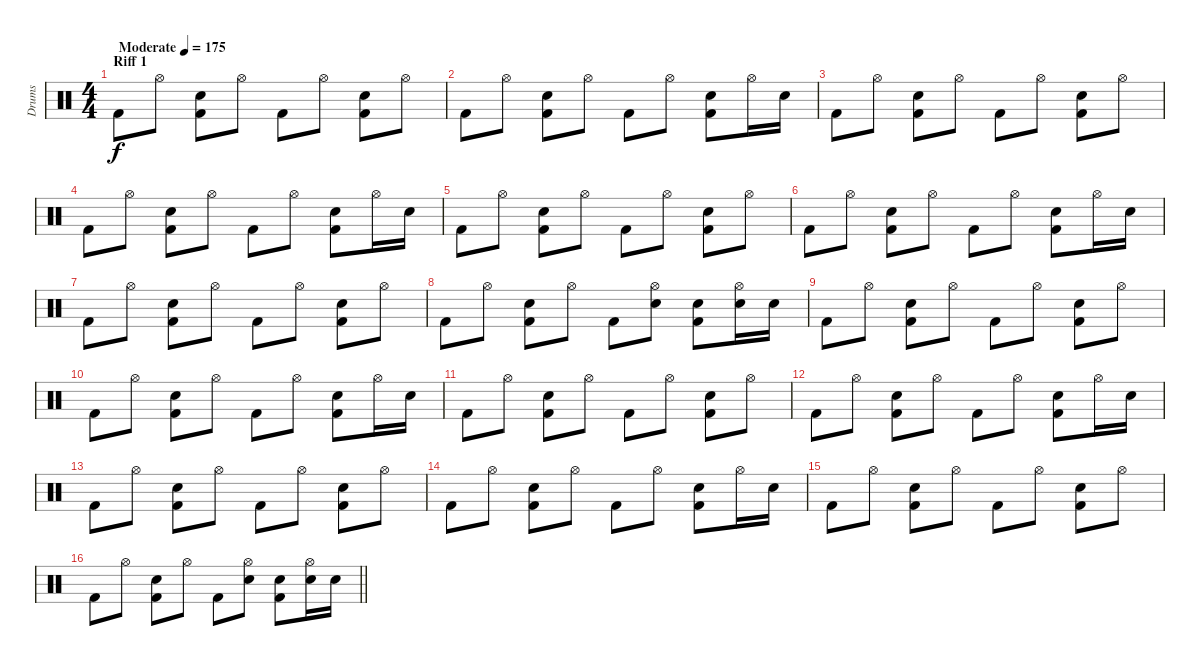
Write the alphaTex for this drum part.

\track ("Drums" "Drums") {instrument percussion}
\staff {score}
\articulation defaults
\ts (4 4)
\section ("" "Riff 1")
\tempo (175 "Moderate")
\clef neutral
\ks c "Kick (hit) 2".8{dy f} "Hi-Hat (open)".8
("Kick (hit) 2" "Snare (hit) 2").8 "Hi-Hat (open)".8 "Kick (hit) 2".8 "Hi-Hat (open)".8 ("Kick (hit) 2" "Snare (hit) 2").8 "Hi-Hat (open)".8 |
"Kick (hit) 2".8 "Hi-Hat (open)".8 ("Kick (hit) 2" "Snare (hit) 2").8 "Hi-Hat (open)".8 "Kick (hit) 2".8 "Hi-Hat (open)".8 ("Kick (hit) 2" "Snare (hit) 2").8 "Hi-Hat (open)".16 "Snare (hit) 2".16 |
"Kick (hit) 2".8 "Hi-Hat (open)".8 ("Kick (hit) 2" "Snare (hit) 2").8 "Hi-Hat (open)".8 "Kick (hit) 2".8 "Hi-Hat (open)".8 ("Kick (hit) 2" "Snare (hit) 2").8 "Hi-Hat (open)".8 |
"Kick (hit) 2".8 "Hi-Hat (open)".8 ("Kick (hit) 2" "Snare (hit) 2").8 "Hi-Hat (open)".8 "Kick (hit) 2".8 "Hi-Hat (open)".8 ("Kick (hit) 2" "Snare (hit) 2").8 "Hi-Hat (open)".16 "Snare (hit) 2".16 |
"Kick (hit) 2".8 "Hi-Hat (open)".8 ("Kick (hit) 2" "Snare (hit) 2").8 "Hi-Hat (open)".8 "Kick (hit) 2".8 "Hi-Hat (open)".8 ("Kick (hit) 2" "Snare (hit) 2").8 "Hi-Hat (open)".8 |
"Kick (hit) 2".8 "Hi-Hat (open)".8 ("Kick (hit) 2" "Snare (hit) 2").8 "Hi-Hat (open)".8 "Kick (hit) 2".8 "Hi-Hat (open)".8 ("Kick (hit) 2" "Snare (hit) 2").8 "Hi-Hat (open)".16 "Snare (hit) 2".16 |
"Kick (hit) 2".8 "Hi-Hat (open)".8 ("Kick (hit) 2" "Snare (hit) 2").8 "Hi-Hat (open)".8 "Kick (hit) 2".8 "Hi-Hat (open)".8 ("Kick (hit) 2" "Snare (hit) 2").8 "Hi-Hat (open)".8 |
"Kick (hit) 2".8 "Hi-Hat (open)".8 ("Kick (hit) 2" "Snare (hit) 2").8 "Hi-Hat (open)".8 "Kick (hit) 2".8 ("Hi-Hat (open)" "Snare (hit) 2").8 ("Kick (hit) 2" "Snare (hit) 2").8 ("Hi-Hat (open)" "Snare (hit) 2").16 "Snare (hit) 2".16 |
"Kick (hit) 2".8 "Hi-Hat (open)".8 ("Kick (hit) 2" "Snare (hit) 2").8 "Hi-Hat (open)".8 "Kick (hit) 2".8 "Hi-Hat (open)".8 ("Kick (hit) 2" "Snare (hit) 2").8 "Hi-Hat (open)".8 |
"Kick (hit) 2".8 "Hi-Hat (open)".8 ("Kick (hit) 2" "Snare (hit) 2").8 "Hi-Hat (open)".8 "Kick (hit) 2".8 "Hi-Hat (open)".8 ("Kick (hit) 2" "Snare (hit) 2").8 "Hi-Hat (open)".16 "Snare (hit) 2".16 |
"Kick (hit) 2".8 "Hi-Hat (open)".8 ("Kick (hit) 2" "Snare (hit) 2").8 "Hi-Hat (open)".8 "Kick (hit) 2".8 "Hi-Hat (open)".8 ("Kick (hit) 2" "Snare (hit) 2").8 "Hi-Hat (open)".8 |
"Kick (hit) 2".8 "Hi-Hat (open)".8 ("Kick (hit) 2" "Snare (hit) 2").8 "Hi-Hat (open)".8 "Kick (hit) 2".8 "Hi-Hat (open)".8 ("Kick (hit) 2" "Snare (hit) 2").8 "Hi-Hat (open)".16 "Snare (hit) 2".16 |
"Kick (hit) 2".8 "Hi-Hat (open)".8 ("Kick (hit) 2" "Snare (hit) 2").8 "Hi-Hat (open)".8 "Kick (hit) 2".8 "Hi-Hat (open)".8 ("Kick (hit) 2" "Snare (hit) 2").8 "Hi-Hat (open)".8 |
"Kick (hit) 2".8 "Hi-Hat (open)".8 ("Kick (hit) 2" "Snare (hit) 2").8 "Hi-Hat (open)".8 "Kick (hit) 2".8 "Hi-Hat (open)".8 ("Kick (hit) 2" "Snare (hit) 2").8 "Hi-Hat (open)".16 "Snare (hit) 2".16 |
"Kick (hit) 2".8 "Hi-Hat (open)".8 ("Kick (hit) 2" "Snare (hit) 2").8 "Hi-Hat (open)".8 "Kick (hit) 2".8 "Hi-Hat (open)".8 ("Kick (hit) 2" "Snare (hit) 2").8 "Hi-Hat (open)".8 |
\barLineRight lightlight "Kick (hit) 2".8 "Hi-Hat (open)".8
("Kick (hit) 2" "Snare (hit) 2").8 "Hi-Hat (open)".8 "Kick (hit) 2".8 ("Hi-Hat (open)" "Snare (hit) 2").8 ("Kick (hit) 2" "Snare (hit) 2").8 ("Hi-Hat (open)" "Snare (hit) 2").16 "Snare (hit) 2".16
